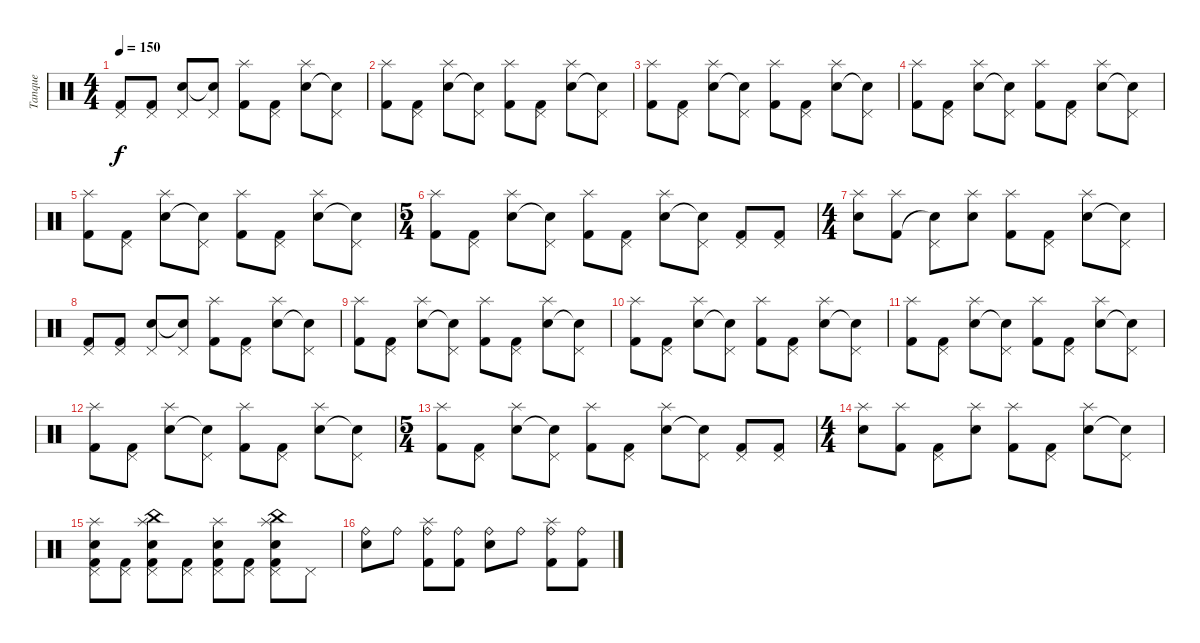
\track ("Tanque" "Tanque") {instrument percussion}
\staff {score}
\articulation defaults
\ts (4 4)
\tempo 150
\clef neutral
\ks c
("Pedal Hi-Hat (hit)" "Kick (hit) 2").8{dy f} ("Pedal Hi-Hat (hit)" "Kick (hit) 2").8 ("Pedal Hi-Hat (hit)" "Snare (hit) 2").8 ("Pedal Hi-Hat (hit)" "Snare (hit)"{t}).8 ("Splash (hit)" "Kick (hit) 2").8 ("Pedal Hi-Hat (hit)" "Kick (hit) 2").8 ("Splash (hit)" "Snare (hit) 2").8 ("Pedal Hi-Hat (hit)" "Snare (hit)"{t}).8 |
("Splash (hit)" "Kick (hit) 2").8 ("Pedal Hi-Hat (hit)" "Kick (hit) 2").8 ("Splash (hit)" "Snare (hit) 2").8 ("Pedal Hi-Hat (hit)" "Snare (hit)"{t}).8 ("Splash (hit)" "Kick (hit) 2").8 ("Pedal Hi-Hat (hit)" "Kick (hit) 2").8 ("Splash (hit)" "Snare (hit) 2").8 ("Pedal Hi-Hat (hit)" "Snare (hit)"{t}).8 |
("Splash (hit)" "Kick (hit) 2").8 ("Pedal Hi-Hat (hit)" "Kick (hit) 2").8 ("Splash (hit)" "Snare (hit) 2").8 ("Pedal Hi-Hat (hit)" "Snare (hit)"{t}).8 ("Splash (hit)" "Kick (hit) 2").8 ("Pedal Hi-Hat (hit)" "Kick (hit) 2").8 ("Splash (hit)" "Snare (hit) 2").8 ("Pedal Hi-Hat (hit)" "Snare (hit)"{t}).8 |
("Splash (hit)" "Kick (hit) 2").8 ("Pedal Hi-Hat (hit)" "Kick (hit) 2").8 ("Splash (hit)" "Snare (hit) 2").8 ("Pedal Hi-Hat (hit)" "Snare (hit)"{t}).8 ("Splash (hit)" "Kick (hit) 2").8 ("Pedal Hi-Hat (hit)" "Kick (hit) 2").8 ("Splash (hit)" "Snare (hit) 2").8 ("Pedal Hi-Hat (hit)" "Snare (hit)"{t}).8 |
("Splash (hit)" "Kick (hit) 2").8 ("Pedal Hi-Hat (hit)" "Kick (hit) 2").8 ("Splash (hit)" "Snare (hit) 2").8 ("Pedal Hi-Hat (hit)" "Snare (hit)"{t}).8 ("Splash (hit)" "Kick (hit) 2").8 ("Pedal Hi-Hat (hit)" "Kick (hit) 2").8 ("Splash (hit)" "Snare (hit) 2").8 ("Pedal Hi-Hat (hit)" "Snare (hit)"{t}).8 |
\ts (5 4)
("Splash (hit)" "Kick (hit) 2").8 ("Pedal Hi-Hat (hit)" "Kick (hit) 2").8 ("Splash (hit)" "Snare (hit) 2").8 ("Pedal Hi-Hat (hit)" "Snare (hit)"{t}).8 ("Splash (hit)" "Kick (hit) 2").8 ("Pedal Hi-Hat (hit)" "Kick (hit) 2").8 ("Splash (hit)" "Snare (hit) 2").8 ("Pedal Hi-Hat (hit)" "Snare (hit)"{t}).8 ("Pedal Hi-Hat (hit)" "Kick (hit) 2").8 ("Pedal Hi-Hat (hit)" "Kick (hit) 2").8 |
\ts (4 4)
("Splash (hit)" "Snare (hit) 2").8 ("Splash (hit)" "Kick (hit) 2").8 ("Pedal Hi-Hat (hit)" "Snare (hit) 2"{t}).8 ("Splash (hit)" "Snare (hit) 2").8 ("Splash (hit)" "Kick (hit) 2").8 ("Pedal Hi-Hat (hit)" "Kick (hit) 2").8 ("Splash (hit)" "Snare (hit) 2").8 ("Pedal Hi-Hat (hit)" "Snare (hit) 2"{t}).8 |
("Pedal Hi-Hat (hit)" "Kick (hit) 2").8 ("Pedal Hi-Hat (hit)" "Kick (hit) 2").8 ("Pedal Hi-Hat (hit)" "Snare (hit) 2").8 ("Pedal Hi-Hat (hit)" "Snare (hit)"{t}).8 ("Splash (hit)" "Kick (hit) 2").8 ("Pedal Hi-Hat (hit)" "Kick (hit) 2").8 ("Splash (hit)" "Snare (hit) 2").8 ("Pedal Hi-Hat (hit)" "Snare (hit)"{t}).8 |
("Splash (hit)" "Kick (hit) 2").8 ("Pedal Hi-Hat (hit)" "Kick (hit) 2").8 ("Splash (hit)" "Snare (hit) 2").8 ("Pedal Hi-Hat (hit)" "Snare (hit)"{t}).8 ("Splash (hit)" "Kick (hit) 2").8 ("Pedal Hi-Hat (hit)" "Kick (hit) 2").8 ("Splash (hit)" "Snare (hit) 2").8 ("Pedal Hi-Hat (hit)" "Snare (hit)"{t}).8 |
("Splash (hit)" "Kick (hit) 2").8 ("Pedal Hi-Hat (hit)" "Kick (hit) 2").8 ("Splash (hit)" "Snare (hit) 2").8 ("Pedal Hi-Hat (hit)" "Snare (hit)"{t}).8 ("Splash (hit)" "Kick (hit) 2").8 ("Pedal Hi-Hat (hit)" "Kick (hit) 2").8 ("Splash (hit)" "Snare (hit) 2").8 ("Pedal Hi-Hat (hit)" "Snare (hit)"{t}).8 |
("Splash (hit)" "Kick (hit) 2").8 ("Pedal Hi-Hat (hit)" "Kick (hit) 2").8 ("Splash (hit)" "Snare (hit) 2").8 ("Pedal Hi-Hat (hit)" "Snare (hit)"{t}).8 ("Splash (hit)" "Kick (hit) 2").8 ("Pedal Hi-Hat (hit)" "Kick (hit) 2").8 ("Splash (hit)" "Snare (hit) 2").8 ("Pedal Hi-Hat (hit)" "Snare (hit)"{t}).8 |
("Splash (hit)" "Kick (hit) 2").8 ("Pedal Hi-Hat (hit)" "Kick (hit) 2").8 ("Splash (hit)" "Snare (hit) 2").8 ("Pedal Hi-Hat (hit)" "Snare (hit)"{t}).8 ("Splash (hit)" "Kick (hit) 2").8 ("Pedal Hi-Hat (hit)" "Kick (hit) 2").8 ("Splash (hit)" "Snare (hit) 2").8 ("Pedal Hi-Hat (hit)" "Snare (hit)"{t}).8 |
\ts (5 4)
("Splash (hit)" "Kick (hit) 2").8 ("Pedal Hi-Hat (hit)" "Kick (hit) 2").8 ("Splash (hit)" "Snare (hit) 2").8 ("Pedal Hi-Hat (hit)" "Snare (hit)"{t}).8 ("Splash (hit)" "Kick (hit) 2").8 ("Pedal Hi-Hat (hit)" "Kick (hit) 2").8 ("Splash (hit)" "Snare (hit) 2").8 ("Pedal Hi-Hat (hit)" "Snare (hit)"{t}).8 ("Pedal Hi-Hat (hit)" "Kick (hit) 2").8 ("Pedal Hi-Hat (hit)" "Kick (hit) 2").8 |
\ts (4 4)
("Splash (hit)" "Snare (hit) 2").8 ("Splash (hit)" "Kick (hit) 2").8 ("Pedal Hi-Hat (hit)" "Kick (hit) 2").8 ("Splash (hit)" "Snare (hit) 2").8 ("Splash (hit)" "Kick (hit) 2").8 ("Pedal Hi-Hat (hit)" "Kick (hit) 2").8 ("Splash (hit)" "Snare (hit) 2").8 ("Pedal Hi-Hat (hit)" "Snare (hit) 2"{t}).8 |
("Pedal Hi-Hat (hit)" "Kick (hit) 2" "Snare (hit) 2" "Splash (hit)").8 ("Pedal Hi-Hat (hit)" "Kick (hit) 2").8 ("Pedal Hi-Hat (hit)" "Kick (hit) 2" "Snare (hit) 2" "Splash (hit)" "China (hit)").8 ("Pedal Hi-Hat (hit)" "Kick (hit) 2").8 ("Pedal Hi-Hat (hit)" "Kick (hit) 2" "Snare (hit) 2" "Splash (hit)").8 ("Pedal Hi-Hat (hit)" "Kick (hit) 2").8 ("Pedal Hi-Hat (hit)" "Kick (hit) 2" "Snare (hit) 2" "Splash (hit)" "China (hit)").8 "Pedal Hi-Hat (hit)".8 |
("Ride (bell)" "Snare (hit) 2").8 "Ride (bell)".8 ("Ride (bell)" "Kick (hit) 2" "Splash (hit)").8 ("Ride (bell)" "Kick (hit) 2").8 ("Ride (bell)" "Snare (hit) 2").8 "Ride (bell)".8 ("Ride (bell)" "Kick (hit) 2" "Splash (hit)").8 ("Ride (bell)" "Kick (hit) 2").8
